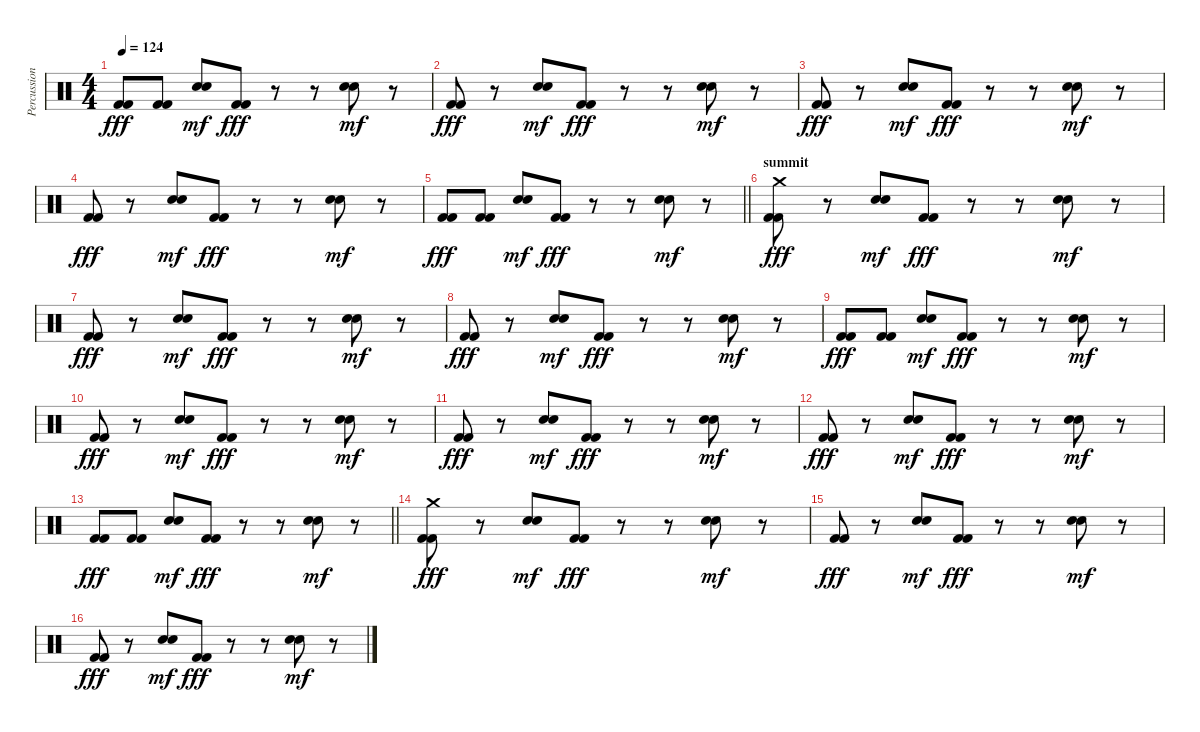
\track ("Percussions" "Percussion") {instrument percussion}
\staff {score}
\articulation defaults
\ts (4 4)
\tempo 124
\clef neutral
\ks c
("Kick (hit) 2" "Kick (hit) 2").8{dy fff} ("Kick (hit) 2" "Kick (hit) 2").8 ("Hand Clap (hit)" "Electric Snare (hit)").8{dy mf} ("Kick (hit) 2" "Kick (hit) 2").8{dy fff} r.8 r.8 ("Hand Clap (hit)" "Electric Snare (hit)").8{dy mf} r.8 |
("Kick (hit) 2" "Kick (hit) 2").8{dy fff} r.8 ("Hand Clap (hit)" "Electric Snare (hit)").8{dy mf} ("Kick (hit) 2" "Kick (hit) 2").8{dy fff} r.8 r.8 ("Hand Clap (hit)" "Electric Snare (hit)").8{dy mf} r.8 |
("Kick (hit) 2" "Kick (hit) 2").8{dy fff} r.8 ("Hand Clap (hit)" "Electric Snare (hit)").8{dy mf} ("Kick (hit) 2" "Kick (hit) 2").8{dy fff} r.8 r.8 ("Hand Clap (hit)" "Electric Snare (hit)").8{dy mf} r.8 |
("Kick (hit) 2" "Kick (hit) 2").8{dy fff} r.8 ("Hand Clap (hit)" "Electric Snare (hit)").8{dy mf} ("Kick (hit) 2" "Kick (hit) 2").8{dy fff} r.8 r.8 ("Hand Clap (hit)" "Electric Snare (hit)").8{dy mf} r.8 |
\barLineRight lightlight
("Kick (hit) 2" "Kick (hit) 2").8{dy fff} ("Kick (hit) 2" "Kick (hit) 2").8 ("Hand Clap (hit)" "Electric Snare (hit)").8{dy mf} ("Kick (hit) 2" "Kick (hit) 2").8{dy fff} r.8 r.8 ("Hand Clap (hit)" "Electric Snare (hit)").8{dy mf} r.8 |
\section ("" "summit")
("Crash medium (hit)" "Kick (hit) 2" "Kick (hit) 2").8{dy fff} r.8 ("Hand Clap (hit)" "Electric Snare (hit)").8{dy mf} ("Kick (hit) 2" "Kick (hit) 2").8{dy fff} r.8 r.8 ("Hand Clap (hit)" "Electric Snare (hit)").8{dy mf} r.8 |
("Kick (hit) 2" "Kick (hit) 2").8{dy fff} r.8 ("Hand Clap (hit)" "Electric Snare (hit)").8{dy mf} ("Kick (hit) 2" "Kick (hit) 2").8{dy fff} r.8 r.8 ("Hand Clap (hit)" "Electric Snare (hit)").8{dy mf} r.8 |
("Kick (hit) 2" "Kick (hit) 2").8{dy fff} r.8 ("Hand Clap (hit)" "Electric Snare (hit)").8{dy mf} ("Kick (hit) 2" "Kick (hit) 2").8{dy fff} r.8 r.8 ("Hand Clap (hit)" "Electric Snare (hit)").8{dy mf} r.8 |
("Kick (hit) 2" "Kick (hit) 2").8{dy fff} ("Kick (hit) 2" "Kick (hit) 2").8 ("Hand Clap (hit)" "Electric Snare (hit)").8{dy mf} ("Kick (hit) 2" "Kick (hit) 2").8{dy fff} r.8 r.8 ("Hand Clap (hit)" "Electric Snare (hit)").8{dy mf} r.8 |
("Kick (hit) 2" "Kick (hit) 2").8{dy fff} r.8 ("Hand Clap (hit)" "Electric Snare (hit)").8{dy mf} ("Kick (hit) 2" "Kick (hit) 2").8{dy fff} r.8 r.8 ("Hand Clap (hit)" "Electric Snare (hit)").8{dy mf} r.8 |
("Kick (hit) 2" "Kick (hit) 2").8{dy fff} r.8 ("Hand Clap (hit)" "Electric Snare (hit)").8{dy mf} ("Kick (hit) 2" "Kick (hit) 2").8{dy fff} r.8 r.8 ("Hand Clap (hit)" "Electric Snare (hit)").8{dy mf} r.8 |
("Kick (hit) 2" "Kick (hit) 2").8{dy fff} r.8 ("Hand Clap (hit)" "Electric Snare (hit)").8{dy mf} ("Kick (hit) 2" "Kick (hit) 2").8{dy fff} r.8 r.8 ("Hand Clap (hit)" "Electric Snare (hit)").8{dy mf} r.8 |
\barLineRight lightlight
("Kick (hit) 2" "Kick (hit) 2").8{dy fff} ("Kick (hit) 2" "Kick (hit) 2").8 ("Hand Clap (hit)" "Electric Snare (hit)").8{dy mf} ("Kick (hit) 2" "Kick (hit) 2").8{dy fff} r.8 r.8 ("Hand Clap (hit)" "Electric Snare (hit)").8{dy mf} r.8 |
("Crash medium (hit)" "Kick (hit) 2" "Kick (hit) 2").8{dy fff} r.8 ("Hand Clap (hit)" "Electric Snare (hit)").8{dy mf} ("Kick (hit) 2" "Kick (hit) 2").8{dy fff} r.8 r.8 ("Hand Clap (hit)" "Electric Snare (hit)").8{dy mf} r.8 |
("Kick (hit) 2" "Kick (hit) 2").8{dy fff} r.8 ("Hand Clap (hit)" "Electric Snare (hit)").8{dy mf} ("Kick (hit) 2" "Kick (hit) 2").8{dy fff} r.8 r.8 ("Hand Clap (hit)" "Electric Snare (hit)").8{dy mf} r.8 |
("Kick (hit) 2" "Kick (hit) 2").8{dy fff} r.8 ("Hand Clap (hit)" "Electric Snare (hit)").8{dy mf} ("Kick (hit) 2" "Kick (hit) 2").8{dy fff} r.8 r.8 ("Hand Clap (hit)" "Electric Snare (hit)").8{dy mf} r.8
